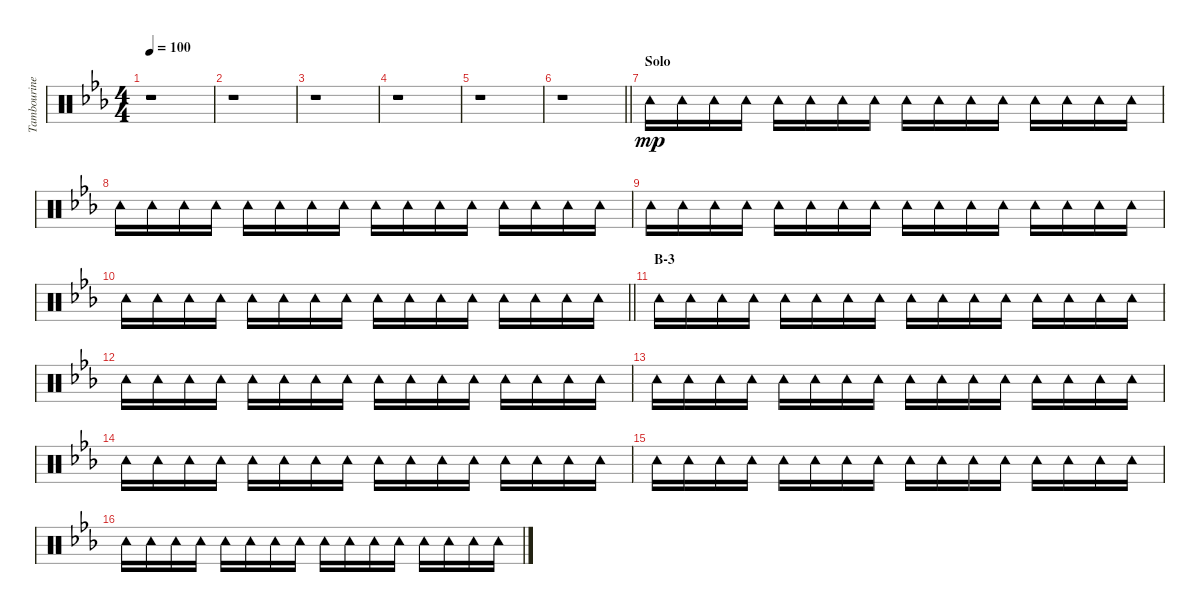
\track ("Tambourine" "Tambourine") {instrument percussion}
\staff {score}
\articulation defaults
\ts (4 4)
\tempo 100
\clef neutral
\ks eb
r.1{dy p} |
r.1 |
r.1 |
r.1 |
r.1 |
\barLineRight lightlight
r.1 |
\section ("" "Solo")
"Tambourine (hit)".16{dy mp} "Tambourine (hit)".16 "Tambourine (hit)".16 "Tambourine (hit)".16 "Tambourine (hit)".16 "Tambourine (hit)".16 "Tambourine (hit)".16 "Tambourine (hit)".16 "Tambourine (hit)".16 "Tambourine (hit)".16 "Tambourine (hit)".16 "Tambourine (hit)".16 "Tambourine (hit)".16 "Tambourine (hit)".16 "Tambourine (hit)".16 "Tambourine (hit)".16 |
"Tambourine (hit)".16 "Tambourine (hit)".16 "Tambourine (hit)".16 "Tambourine (hit)".16 "Tambourine (hit)".16 "Tambourine (hit)".16 "Tambourine (hit)".16 "Tambourine (hit)".16 "Tambourine (hit)".16 "Tambourine (hit)".16 "Tambourine (hit)".16 "Tambourine (hit)".16 "Tambourine (hit)".16 "Tambourine (hit)".16 "Tambourine (hit)".16 "Tambourine (hit)".16 |
"Tambourine (hit)".16 "Tambourine (hit)".16 "Tambourine (hit)".16 "Tambourine (hit)".16 "Tambourine (hit)".16 "Tambourine (hit)".16 "Tambourine (hit)".16 "Tambourine (hit)".16 "Tambourine (hit)".16 "Tambourine (hit)".16 "Tambourine (hit)".16 "Tambourine (hit)".16 "Tambourine (hit)".16 "Tambourine (hit)".16 "Tambourine (hit)".16 "Tambourine (hit)".16 |
\barLineRight lightlight "Tambourine (hit)".16 "Tambourine (hit)".16 "Tambourine (hit)".16 "Tambourine (hit)".16 "Tambourine (hit)".16 "Tambourine (hit)".16 "Tambourine (hit)".16 "Tambourine (hit)".16 "Tambourine (hit)".16 "Tambourine (hit)".16 "Tambourine (hit)".16 "Tambourine (hit)".16 "Tambourine (hit)".16 "Tambourine (hit)".16 "Tambourine (hit)".16 "Tambourine (hit)".16
|
\section ("" "B-3")
"Tambourine (hit)".16 "Tambourine (hit)".16 "Tambourine (hit)".16 "Tambourine (hit)".16 "Tambourine (hit)".16 "Tambourine (hit)".16 "Tambourine (hit)".16 "Tambourine (hit)".16 "Tambourine (hit)".16 "Tambourine (hit)".16 "Tambourine (hit)".16 "Tambourine (hit)".16 "Tambourine (hit)".16 "Tambourine (hit)".16 "Tambourine (hit)".16 "Tambourine (hit)".16 |
"Tambourine (hit)".16 "Tambourine (hit)".16 "Tambourine (hit)".16 "Tambourine (hit)".16 "Tambourine (hit)".16 "Tambourine (hit)".16 "Tambourine (hit)".16 "Tambourine (hit)".16 "Tambourine (hit)".16 "Tambourine (hit)".16 "Tambourine (hit)".16 "Tambourine (hit)".16 "Tambourine (hit)".16 "Tambourine (hit)".16 "Tambourine (hit)".16 "Tambourine (hit)".16 |
"Tambourine (hit)".16 "Tambourine (hit)".16 "Tambourine (hit)".16 "Tambourine (hit)".16 "Tambourine (hit)".16 "Tambourine (hit)".16 "Tambourine (hit)".16 "Tambourine (hit)".16 "Tambourine (hit)".16 "Tambourine (hit)".16 "Tambourine (hit)".16 "Tambourine (hit)".16 "Tambourine (hit)".16 "Tambourine (hit)".16 "Tambourine (hit)".16 "Tambourine (hit)".16 |
"Tambourine (hit)".16 "Tambourine (hit)".16 "Tambourine (hit)".16 "Tambourine (hit)".16 "Tambourine (hit)".16 "Tambourine (hit)".16 "Tambourine (hit)".16 "Tambourine (hit)".16 "Tambourine (hit)".16 "Tambourine (hit)".16 "Tambourine (hit)".16 "Tambourine (hit)".16 "Tambourine (hit)".16 "Tambourine (hit)".16 "Tambourine (hit)".16 "Tambourine (hit)".16 |
"Tambourine (hit)".16 "Tambourine (hit)".16 "Tambourine (hit)".16 "Tambourine (hit)".16 "Tambourine (hit)".16 "Tambourine (hit)".16 "Tambourine (hit)".16 "Tambourine (hit)".16 "Tambourine (hit)".16 "Tambourine (hit)".16 "Tambourine (hit)".16 "Tambourine (hit)".16 "Tambourine (hit)".16 "Tambourine (hit)".16 "Tambourine (hit)".16 "Tambourine (hit)".16 |
"Tambourine (hit)".16 "Tambourine (hit)".16 "Tambourine (hit)".16 "Tambourine (hit)".16 "Tambourine (hit)".16 "Tambourine (hit)".16 "Tambourine (hit)".16 "Tambourine (hit)".16 "Tambourine (hit)".16 "Tambourine (hit)".16 "Tambourine (hit)".16 "Tambourine (hit)".16 "Tambourine (hit)".16 "Tambourine (hit)".16 "Tambourine (hit)".16 "Tambourine (hit)".16
